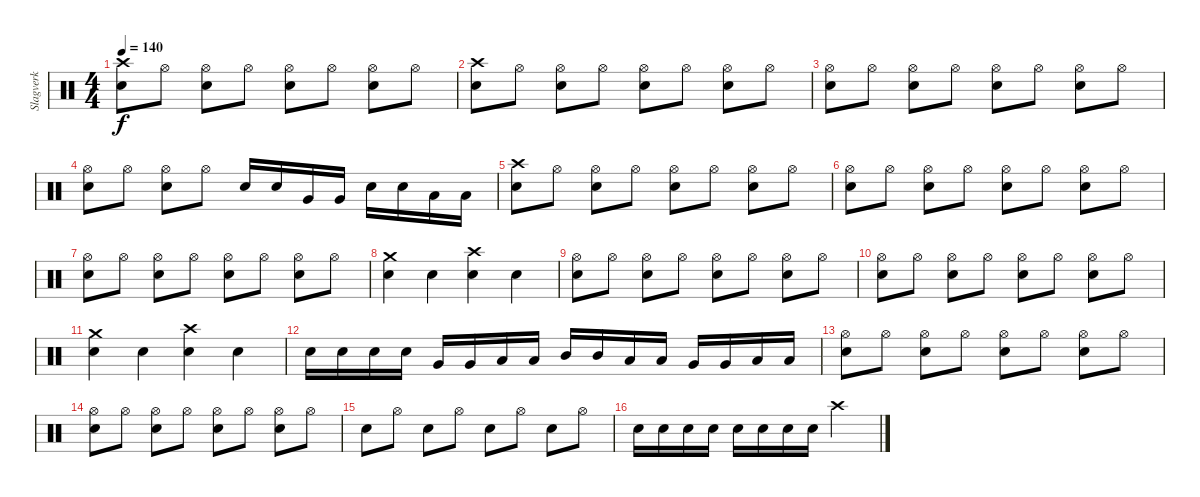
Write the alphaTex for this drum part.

\track ("Slagverk" "Slagverk") {instrument percussion}
\staff {score}
\articulation defaults
\ts (4 4)
\tempo 140
\clef neutral
\ks c
("Crash high (hit)" "Snare (hit) 2").8{dy f} "Hi-Hat (open)".8 ("Hi-Hat (open)" "Snare (hit) 2").8 "Hi-Hat (open)".8 ("Hi-Hat (open)" "Snare (hit) 2").8 "Hi-Hat (open)".8 ("Hi-Hat (open)" "Snare (hit) 2").8 "Hi-Hat (open)".8 |
("Crash high (hit)" "Snare (hit) 2").8 "Hi-Hat (open)".8 ("Hi-Hat (open)" "Snare (hit) 2").8 "Hi-Hat (open)".8 ("Hi-Hat (open)" "Snare (hit) 2").8 "Hi-Hat (open)".8 ("Hi-Hat (open)" "Snare (hit) 2").8 "Hi-Hat (open)".8 |
("Hi-Hat (open)" "Snare (hit) 2").8 "Hi-Hat (open)".8 ("Hi-Hat (open)" "Snare (hit) 2").8 "Hi-Hat (open)".8 ("Hi-Hat (open)" "Snare (hit) 2").8 "Hi-Hat (open)".8 ("Hi-Hat (open)" "Snare (hit) 2").8 "Hi-Hat (open)".8 |
("Hi-Hat (open)" "Snare (hit) 2").8 "Hi-Hat (open)".8 ("Hi-Hat (open)" "Snare (hit) 2").8 "Hi-Hat (open)".8 "Snare (hit) 2".16 "Snare (hit) 2".16 "Very Low Tom (hit)".16 "Very Low Tom (hit)".16 "Snare (hit) 2".16 "Snare (hit) 2".16 "Low Tom (hit)".16 "Low Tom (hit)".16 |
("Crash high (hit)" "Snare (hit) 2").8 "Hi-Hat (open)".8 ("Hi-Hat (open)" "Snare (hit) 2").8 "Hi-Hat (open)".8 ("Hi-Hat (open)" "Snare (hit) 2").8 "Hi-Hat (open)".8 ("Hi-Hat (open)" "Snare (hit) 2").8 "Hi-Hat (open)".8 |
("Hi-Hat (open)" "Snare (hit) 2").8 "Hi-Hat (open)".8 ("Hi-Hat (open)" "Snare (hit) 2").8 "Hi-Hat (open)".8 ("Hi-Hat (open)" "Snare (hit) 2").8 "Hi-Hat (open)".8 ("Hi-Hat (open)" "Snare (hit) 2").8 "Hi-Hat (open)".8 |
("Hi-Hat (open)" "Snare (hit) 2").8 "Hi-Hat (open)".8 ("Hi-Hat (open)" "Snare (hit) 2").8 "Hi-Hat (open)".8 ("Hi-Hat (open)" "Snare (hit) 2").8 "Hi-Hat (open)".8 ("Hi-Hat (open)" "Snare (hit) 2").8 "Hi-Hat (open)".8 |
("Crash medium (hit)" "Snare (hit) 2").4 "Snare (hit) 2".4 ("Crash high (hit)" "Snare (hit) 2").4 "Snare (hit) 2".4 |
("Hi-Hat (open)" "Snare (hit) 2").8 "Hi-Hat (open)".8 ("Hi-Hat (open)" "Snare (hit) 2").8 "Hi-Hat (open)".8 ("Hi-Hat (open)" "Snare (hit) 2").8 "Hi-Hat (open)".8 ("Hi-Hat (open)" "Snare (hit) 2").8 "Hi-Hat (open)".8 |
("Hi-Hat (open)" "Snare (hit) 2").8 "Hi-Hat (open)".8 ("Hi-Hat (open)" "Snare (hit) 2").8 "Hi-Hat (open)".8 ("Hi-Hat (open)" "Snare (hit) 2").8 "Hi-Hat (open)".8 ("Hi-Hat (open)" "Snare (hit) 2").8 "Hi-Hat (open)".8 |
("Crash medium (hit)" "Snare (hit) 2").4 "Snare (hit) 2".4 ("Crash high (hit)" "Snare (hit) 2").4 "Snare (hit) 2".4 |
"Snare (hit) 2".16 "Snare (hit) 2".16 "Snare (hit) 2".16 "Snare (hit) 2".16 "Very Low Tom (hit)".16 "Very Low Tom (hit)".16 "Low Tom (hit)".16 "Low Tom (hit)".16 "Mid Tom (hit)".16 "Mid Tom (hit)".16 "Low Tom (hit)".16 "Low Tom (hit)".16 "Very Low Tom (hit)".16 "Very Low Tom (hit)".16 "Low Floor Tom (hit)".16 "Low Floor Tom (hit)".16 |
("Hi-Hat (open)" "Snare (hit) 2").8 "Hi-Hat (open)".8 ("Hi-Hat (open)" "Snare (hit) 2").8 "Hi-Hat (open)".8 ("Hi-Hat (open)" "Snare (hit) 2").8 "Hi-Hat (open)".8 ("Hi-Hat (open)" "Snare (hit) 2").8 "Hi-Hat (open)".8 |
("Hi-Hat (open)" "Snare (hit) 2").8 "Hi-Hat (open)".8 ("Hi-Hat (open)" "Snare (hit) 2").8 "Hi-Hat (open)".8 ("Hi-Hat (open)" "Snare (hit) 2").8 "Hi-Hat (open)".8 ("Hi-Hat (open)" "Snare (hit) 2").8 "Hi-Hat (open)".8 |
"Snare (hit) 2".8 "Hi-Hat (open)".8 "Snare (hit) 2".8 "Hi-Hat (open)".8 "Snare (hit) 2".8 "Hi-Hat (open)".8 "Snare (hit) 2".8 "Hi-Hat (open)".8 |
"Snare (hit) 2".16 "Snare (hit) 2".16 "Snare (hit) 2".16 "Snare (hit) 2".16 "Snare (hit) 2".16 "Snare (hit) 2".16 "Snare (hit) 2".16 "Snare (hit) 2".16 "Crash high (hit)".2
